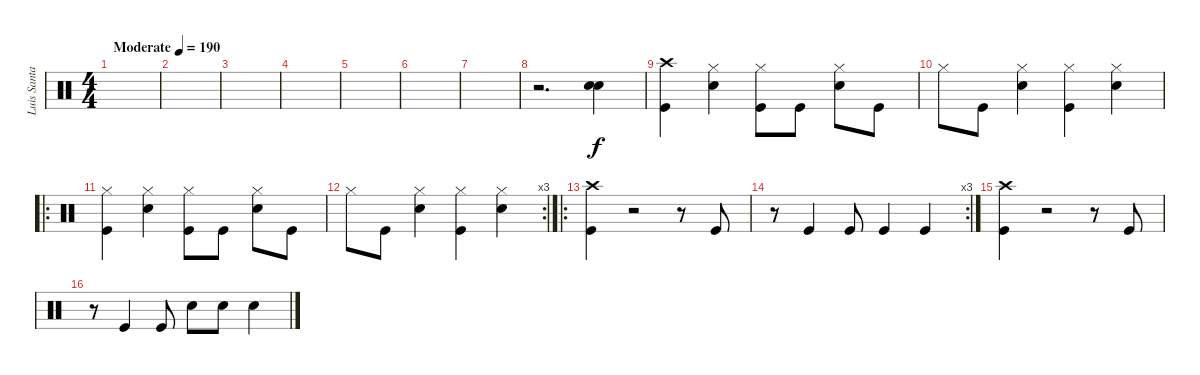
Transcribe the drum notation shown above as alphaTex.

\track ("Luis Santamarina - Batería" "Luis Santa") {instrument percussion}
\staff {score}
\articulation defaults
\ts (4 4)
\tempo (190 "Moderate")
\clef neutral
\ks c
|
|
|
|
|
|
|
r.2{d} ("Electric Snare (hit)" "Electric Snare (hit)").4 |
("Crash high (hit)" "Kick (hit)").4 ("Hi-Hat (closed)" "Electric Snare (hit)").4 ("Hi-Hat (closed)" "Kick (hit)").8 "Kick (hit)".8 ("Hi-Hat (closed)" "Electric Snare (hit)").8 "Kick (hit)".8 |
"Hi-Hat (closed)".8 "Kick (hit)".8 ("Hi-Hat (closed)" "Electric Snare (hit)").4 ("Hi-Hat (closed)" "Kick (hit)").4 ("Hi-Hat (closed)" "Electric Snare (hit)").4 |
\ro
("Hi-Hat (closed)" "Kick (hit)").4 ("Hi-Hat (closed)" "Electric Snare (hit)").4 ("Hi-Hat (closed)" "Kick (hit)").8 "Kick (hit)".8 ("Hi-Hat (closed)" "Electric Snare (hit)").8 "Kick (hit)".8 |
\rc 3 "Hi-Hat (closed)".8 "Kick (hit)".8
("Hi-Hat (closed)" "Electric Snare (hit)").4 ("Hi-Hat (closed)" "Kick (hit)").4 ("Hi-Hat (closed)" "Electric Snare (hit)").4 |
\ro
("Crash high (hit)" "Kick (hit)").4 r.2 r.8 "Kick (hit)".8 |
\rc 3
r.8 "Kick (hit)".4 "Kick (hit)".8 "Kick (hit)".4 "Kick (hit)".4 |
("Crash high (hit)" "Kick (hit)").4 r.2 r.8 "Kick (hit)".8 |
r.8 "Kick (hit)".4 "Kick (hit)".8 "Electric Snare (hit)".8 "Electric Snare (hit)".8 "Electric Snare (hit)".4
